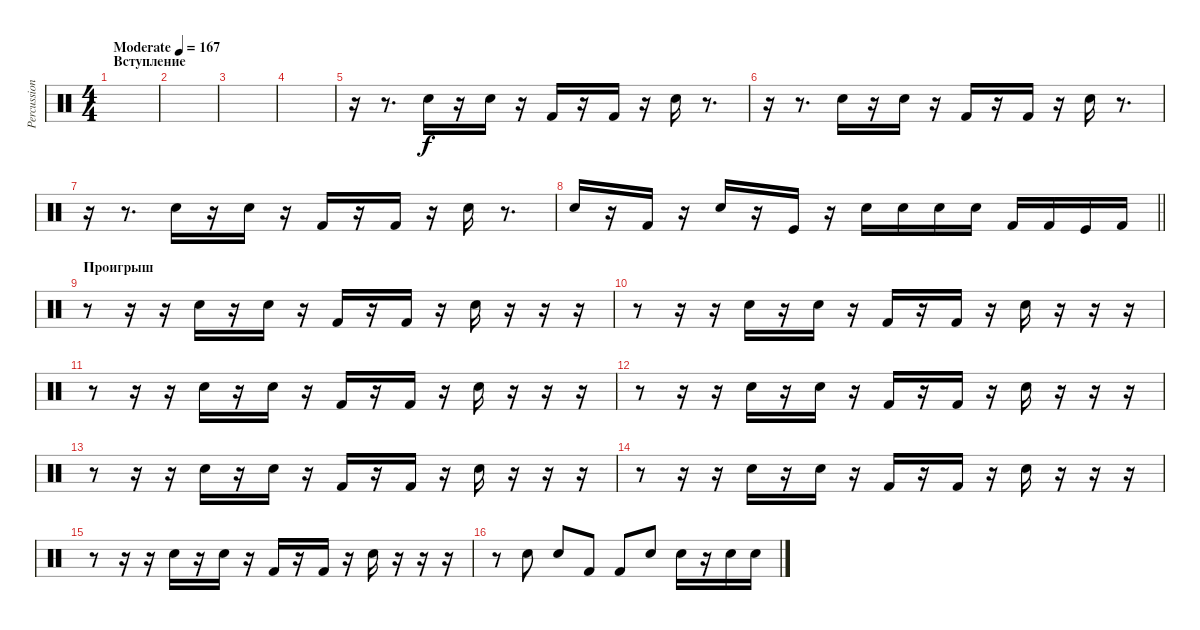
\track ("Percussion 1" "Percussion") {instrument percussion}
\staff {score}
\articulation defaults
\ts (4 4)
\section ("" "Вступление")
\tempo (167 "Moderate")
\clef neutral
\ks c
|
|
|
|
r.16 r.8{d} "Electric Snare (hit)".16 r.16 "Electric Snare (hit)".16 r.16 "Kick (hit) 2".16 r.16 "Kick (hit) 2".16 r.16 "Snare (hit) 2".16 r.8{d} |
r.16 r.8{d} "Electric Snare (hit)".16 r.16 "Electric Snare (hit)".16 r.16 "Kick (hit) 2".16 r.16 "Kick (hit) 2".16 r.16 "Snare (hit) 2".16 r.8{d} |
r.16 r.8{d} "Electric Snare (hit)".16 r.16 "Electric Snare (hit)".16 r.16 "Kick (hit) 2".16 r.16 "Kick (hit) 2".16 r.16 "Snare (hit) 2".16 r.8{d} |
\barLineRight lightlight "Snare (hit) 2".16
r.16 "Kick (hit) 2".16 r.16 "Snare (hit) 2".16 r.16 "Kick (hit)".16 r.16 "Snare (hit) 2".16 "Snare (hit) 2".16 "Snare (hit) 2".16 "Snare (hit) 2".16 "Kick (hit) 2".16 "Kick (hit) 2".16 "Kick (hit)".16 "Kick (hit) 2".16 |
\section ("" "Проигрыш")
r.8 r.16 r.16 "Electric Snare (hit)".16 r.16 "Electric Snare (hit)".16 r.16 "Kick (hit) 2".16 r.16 "Kick (hit) 2".16 r.16 "Snare (hit) 2".16 r.16 r.16 r.16 |
r.8 r.16 r.16 "Electric Snare (hit)".16 r.16 "Electric Snare (hit)".16 r.16 "Kick (hit) 2".16 r.16 "Kick (hit) 2".16 r.16 "Snare (hit) 2".16 r.16 r.16 r.16 |
r.8 r.16 r.16 "Electric Snare (hit)".16 r.16 "Electric Snare (hit)".16 r.16 "Kick (hit) 2".16 r.16 "Kick (hit) 2".16 r.16 "Snare (hit) 2".16 r.16 r.16 r.16 |
r.8 r.16 r.16 "Electric Snare (hit)".16 r.16 "Electric Snare (hit)".16 r.16 "Kick (hit) 2".16 r.16 "Kick (hit) 2".16 r.16 "Snare (hit) 2".16 r.16 r.16 r.16 |
r.8 r.16 r.16 "Electric Snare (hit)".16 r.16 "Electric Snare (hit)".16 r.16 "Kick (hit) 2".16 r.16 "Kick (hit) 2".16 r.16 "Snare (hit) 2".16 r.16 r.16 r.16 |
r.8 r.16 r.16 "Electric Snare (hit)".16 r.16 "Electric Snare (hit)".16 r.16 "Kick (hit) 2".16 r.16 "Kick (hit) 2".16 r.16 "Snare (hit) 2".16 r.16 r.16 r.16 |
r.8 r.16 r.16 "Electric Snare (hit)".16 r.16 "Electric Snare (hit)".16 r.16 "Kick (hit) 2".16 r.16 "Kick (hit) 2".16 r.16 "Snare (hit) 2".16 r.16 r.16 r.16 |
r.8 "Electric Snare (hit)".8 "Electric Snare (hit)".8 "Kick (hit) 2".8 "Kick (hit) 2".8 "Snare (hit) 2".8 "Snare (hit) 2".16 r.16 "Electric Snare (hit)".16 "Snare (hit) 2".16
